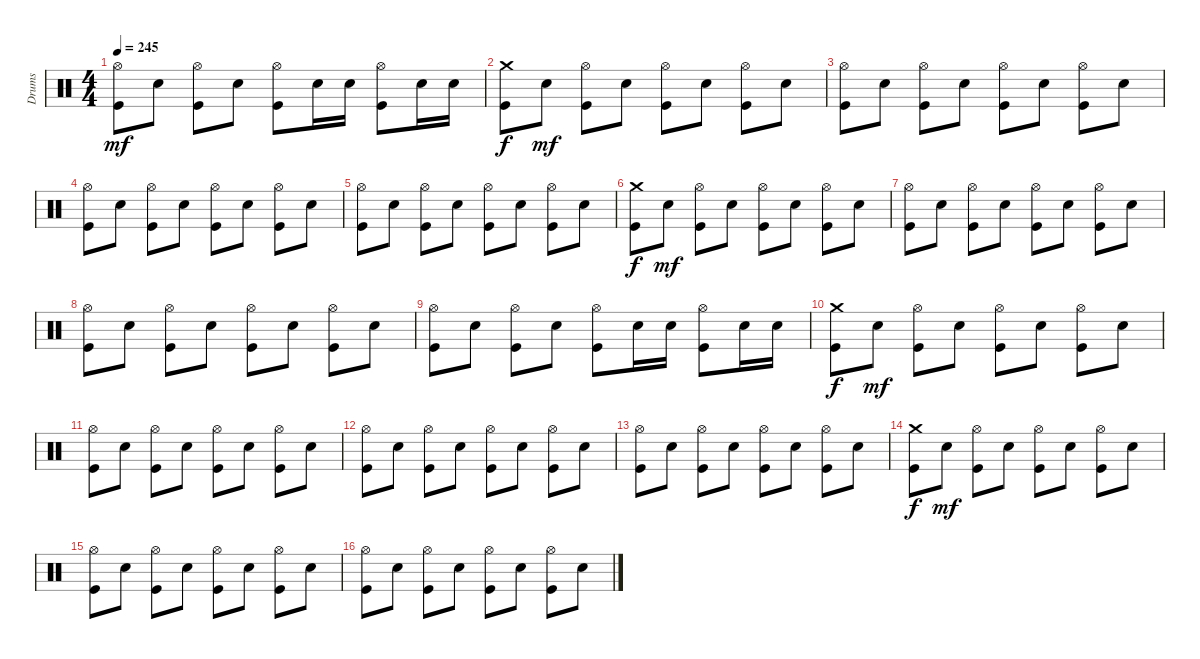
\track ("Drums" "Drums") {instrument percussion}
\staff {score}
\articulation defaults
\ts (4 4)
\tempo 245
\clef neutral
\ks c
("Hi-Hat (open)" "Kick (hit)").8{dy mf} "Snare (hit) 2".8 ("Hi-Hat (open)" "Kick (hit)").8 "Snare (hit) 2".8 ("Hi-Hat (open)" "Kick (hit)").8 "Snare (hit) 2".16 "Snare (hit) 2".16 ("Hi-Hat (open)" "Kick (hit)").8 "Snare (hit) 2".16 "Snare (hit) 2".16 |
("Crash medium (hit)" "Kick (hit)").8{dy f} "Snare (hit) 2".8{dy mf} ("Hi-Hat (open)" "Kick (hit)").8 "Snare (hit) 2".8 ("Hi-Hat (open)" "Kick (hit)").8 "Snare (hit) 2".8 ("Hi-Hat (open)" "Kick (hit)").8 "Snare (hit) 2".8 |
("Hi-Hat (open)" "Kick (hit)").8 "Snare (hit) 2".8 ("Hi-Hat (open)" "Kick (hit)").8 "Snare (hit) 2".8 ("Hi-Hat (open)" "Kick (hit)").8 "Snare (hit) 2".8 ("Hi-Hat (open)" "Kick (hit)").8 "Snare (hit) 2".8 |
("Hi-Hat (open)" "Kick (hit)").8 "Snare (hit) 2".8 ("Hi-Hat (open)" "Kick (hit)").8 "Snare (hit) 2".8 ("Hi-Hat (open)" "Kick (hit)").8 "Snare (hit) 2".8 ("Hi-Hat (open)" "Kick (hit)").8 "Snare (hit) 2".8 |
("Hi-Hat (open)" "Kick (hit)").8 "Snare (hit) 2".8 ("Hi-Hat (open)" "Kick (hit)").8 "Snare (hit) 2".8 ("Hi-Hat (open)" "Kick (hit)").8 "Snare (hit) 2".8 ("Hi-Hat (open)" "Kick (hit)").8 "Snare (hit) 2".8 |
("Crash medium (hit)" "Kick (hit)").8{dy f} "Snare (hit) 2".8{dy mf} ("Hi-Hat (open)" "Kick (hit)").8 "Snare (hit) 2".8 ("Hi-Hat (open)" "Kick (hit)").8 "Snare (hit) 2".8 ("Hi-Hat (open)" "Kick (hit)").8 "Snare (hit) 2".8 |
("Hi-Hat (open)" "Kick (hit)").8 "Snare (hit) 2".8 ("Hi-Hat (open)" "Kick (hit)").8 "Snare (hit) 2".8 ("Hi-Hat (open)" "Kick (hit)").8 "Snare (hit) 2".8 ("Hi-Hat (open)" "Kick (hit)").8 "Snare (hit) 2".8 |
("Hi-Hat (open)" "Kick (hit)").8 "Snare (hit) 2".8 ("Hi-Hat (open)" "Kick (hit)").8 "Snare (hit) 2".8 ("Hi-Hat (open)" "Kick (hit)").8 "Snare (hit) 2".8 ("Hi-Hat (open)" "Kick (hit)").8 "Snare (hit) 2".8 |
("Hi-Hat (open)" "Kick (hit)").8 "Snare (hit) 2".8 ("Hi-Hat (open)" "Kick (hit)").8 "Snare (hit) 2".8 ("Hi-Hat (open)" "Kick (hit)").8 "Snare (hit) 2".16 "Snare (hit) 2".16 ("Hi-Hat (open)" "Kick (hit)").8 "Snare (hit) 2".16 "Snare (hit) 2".16 |
("Crash medium (hit)" "Kick (hit)").8{dy f} "Snare (hit) 2".8{dy mf} ("Hi-Hat (open)" "Kick (hit)").8 "Snare (hit) 2".8 ("Hi-Hat (open)" "Kick (hit)").8 "Snare (hit) 2".8 ("Hi-Hat (open)" "Kick (hit)").8 "Snare (hit) 2".8 |
("Hi-Hat (open)" "Kick (hit)").8 "Snare (hit) 2".8 ("Hi-Hat (open)" "Kick (hit)").8 "Snare (hit) 2".8 ("Hi-Hat (open)" "Kick (hit)").8 "Snare (hit) 2".8 ("Hi-Hat (open)" "Kick (hit)").8 "Snare (hit) 2".8 |
("Hi-Hat (open)" "Kick (hit)").8 "Snare (hit) 2".8 ("Hi-Hat (open)" "Kick (hit)").8 "Snare (hit) 2".8 ("Hi-Hat (open)" "Kick (hit)").8 "Snare (hit) 2".8 ("Hi-Hat (open)" "Kick (hit)").8 "Snare (hit) 2".8 |
("Hi-Hat (open)" "Kick (hit)").8 "Snare (hit) 2".8 ("Hi-Hat (open)" "Kick (hit)").8 "Snare (hit) 2".8 ("Hi-Hat (open)" "Kick (hit)").8 "Snare (hit) 2".8 ("Hi-Hat (open)" "Kick (hit)").8 "Snare (hit) 2".8 |
("Crash medium (hit)" "Kick (hit)").8{dy f} "Snare (hit) 2".8{dy mf} ("Hi-Hat (open)" "Kick (hit)").8 "Snare (hit) 2".8 ("Hi-Hat (open)" "Kick (hit)").8 "Snare (hit) 2".8 ("Hi-Hat (open)" "Kick (hit)").8 "Snare (hit) 2".8 |
("Hi-Hat (open)" "Kick (hit)").8 "Snare (hit) 2".8 ("Hi-Hat (open)" "Kick (hit)").8 "Snare (hit) 2".8 ("Hi-Hat (open)" "Kick (hit)").8 "Snare (hit) 2".8 ("Hi-Hat (open)" "Kick (hit)").8 "Snare (hit) 2".8 |
("Hi-Hat (open)" "Kick (hit)").8 "Snare (hit) 2".8 ("Hi-Hat (open)" "Kick (hit)").8 "Snare (hit) 2".8 ("Hi-Hat (open)" "Kick (hit)").8 "Snare (hit) 2".8 ("Hi-Hat (open)" "Kick (hit)").8 "Snare (hit) 2".8
